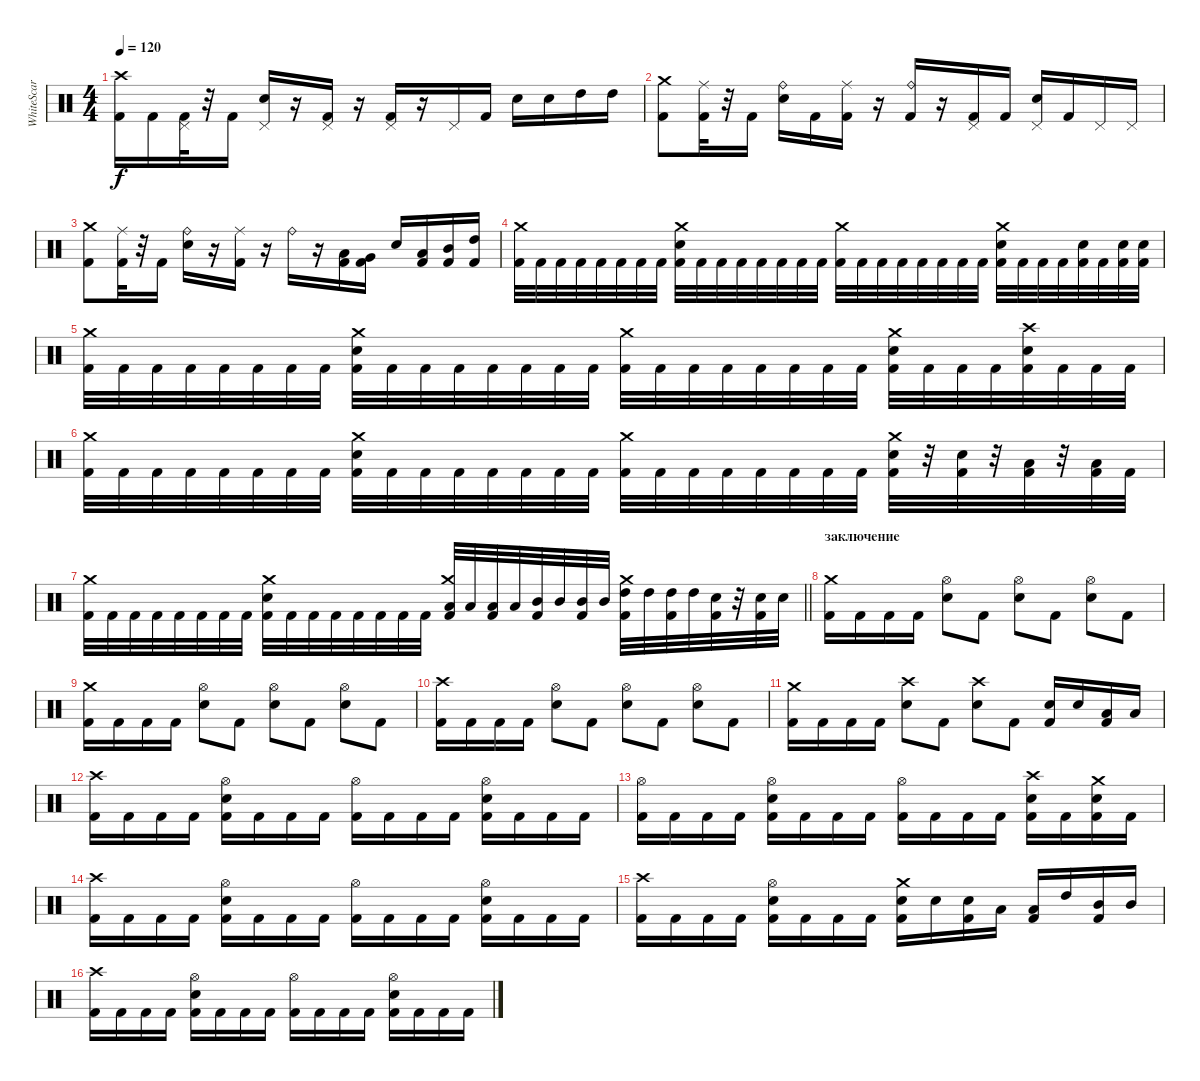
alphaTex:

\track ("WhiteScar" "WhiteScar") {instrument percussion}
\staff {score}
\articulation defaults
\ts (4 4)
\tempo 120
\clef neutral
\ks c
("Crash high (hit)" "Kick (hit) 2").16{dy f} "Kick (hit) 2".16 ("Pedal Hi-Hat (hit)" "Kick (hit) 2").32 r.32 "Kick (hit) 2".16 ("Pedal Hi-Hat (hit)" "Snare (hit) 2").16 r.16 ("Pedal Hi-Hat (hit)" "Kick (hit) 2").16 r.16 ("Pedal Hi-Hat (hit)" "Kick (hit) 2").16 r.16 "Pedal Hi-Hat (hit)".16 "Kick (hit) 2".16 "Snare (hit) 2".16 "Snare (hit) 2".16 "High Tom (hit)".16 "High Tom (hit)".16 |
("Crash medium (hit)" "Kick (hit) 2").8 ("Ride (middle)" "Kick (hit) 2").32 r.32 "Kick (hit) 2".16 ("Ride (bell)" "Snare (hit) 2").16 "Kick (hit) 2".16 ("Ride (middle)" "Kick (hit) 2").16 r.16 ("Ride (bell)" "Kick (hit) 2").16 r.16 ("Pedal Hi-Hat (hit)" "Kick (hit) 2").16 "Kick (hit) 2".16 ("Pedal Hi-Hat (hit)" "Snare (hit) 2").16 "Kick (hit) 2".16 "Pedal Hi-Hat (hit)".16 "Pedal Hi-Hat (hit)".16 |
("Crash medium (hit)" "Kick (hit) 2").8 ("Ride (middle)" "Kick (hit) 2").32 r.32 "Kick (hit) 2".16 ("Ride (bell)" "Snare (hit) 2").16 r.16 ("Ride (middle)" "Kick (hit) 2").16 r.16 "Ride (bell)".16 r.16 ("Low Floor Tom (hit)" "Kick (hit) 2").16 ("Very Low Tom (hit)" "Kick (hit) 2").16 "Snare (hit) 2".16 ("Low Tom (hit)" "Kick (hit) 2").16 ("Mid Tom (hit)" "Kick (hit) 2").16 ("High Tom (hit)" "Kick (hit) 2").16 |
("Crash medium (hit)" "Kick (hit) 2").32 "Kick (hit) 2".32 "Kick (hit) 2".32 "Kick (hit) 2".32 "Kick (hit) 2".32 "Kick (hit) 2".32 "Kick (hit) 2".32 "Kick (hit) 2".32 ("Crash medium (hit)" "Snare (hit) 2" "Kick (hit) 2").32 "Kick (hit) 2".32 "Kick (hit) 2".32 "Kick (hit) 2".32 "Kick (hit) 2".32 "Kick (hit) 2".32 "Kick (hit) 2".32 "Kick (hit) 2".32 ("Crash medium (hit)" "Kick (hit) 2").32 "Kick (hit) 2".32 "Kick (hit) 2".32 "Kick (hit) 2".32 "Kick (hit) 2".32 "Kick (hit) 2".32 "Kick (hit) 2".32 "Kick (hit) 2".32 ("Crash medium (hit)" "Snare (hit) 2" "Kick (hit) 2").32 "Kick (hit) 2".32 "Kick (hit) 2".32 "Kick (hit) 2".32 ("Snare (hit) 2" "Kick (hit) 2").32 "Kick (hit) 2".32 ("Snare (hit) 2" "Kick (hit) 2").32 ("Snare (hit) 2" "Kick (hit) 2").32 |
("Crash medium (hit)" "Kick (hit) 2").32 "Kick (hit) 2".32 "Kick (hit) 2".32 "Kick (hit) 2".32 "Kick (hit) 2".32 "Kick (hit) 2".32 "Kick (hit) 2".32 "Kick (hit) 2".32 ("Crash medium (hit)" "Snare (hit) 2" "Kick (hit) 2").32 "Kick (hit) 2".32 "Kick (hit) 2".32 "Kick (hit) 2".32 "Kick (hit) 2".32 "Kick (hit) 2".32 "Kick (hit) 2".32 "Kick (hit) 2".32 ("Crash medium (hit)" "Kick (hit) 2").32 "Kick (hit) 2".32 "Kick (hit) 2".32 "Kick (hit) 2".32 "Kick (hit) 2".32 "Kick (hit) 2".32 "Kick (hit) 2".32 "Kick (hit) 2".32 ("Crash medium (hit)" "Snare (hit) 2" "Kick (hit) 2").32 "Kick (hit) 2".32 "Kick (hit) 2".32 "Kick (hit) 2".32 ("Crash high (hit)" "Snare (hit) 2" "Kick (hit) 2").32 "Kick (hit) 2".32 "Kick (hit) 2".32 "Kick (hit) 2".32 |
("Crash medium (hit)" "Kick (hit) 2").32 "Kick (hit) 2".32 "Kick (hit) 2".32 "Kick (hit) 2".32 "Kick (hit) 2".32 "Kick (hit) 2".32 "Kick (hit) 2".32 "Kick (hit) 2".32 ("Crash medium (hit)" "Snare (hit) 2" "Kick (hit) 2").32 "Kick (hit) 2".32 "Kick (hit) 2".32 "Kick (hit) 2".32 "Kick (hit) 2".32 "Kick (hit) 2".32 "Kick (hit) 2".32 "Kick (hit) 2".32 ("Crash medium (hit)" "Kick (hit) 2").32 "Kick (hit) 2".32 "Kick (hit) 2".32 "Kick (hit) 2".32 "Kick (hit) 2".32 "Kick (hit) 2".32 "Kick (hit) 2".32 "Kick (hit) 2".32 ("Crash medium (hit)" "Snare (hit) 2" "Kick (hit) 2").32 r.32 ("Snare (hit) 2" "Kick (hit) 2").32 r.32 ("Low Tom (hit)" "Kick (hit) 2").32 r.32 ("Low Tom (hit)" "Kick (hit) 2").32 "Kick (hit) 2".32 |
\barLineRight lightlight
("Crash medium (hit)" "Kick (hit) 2").32 "Kick (hit) 2".32 "Kick (hit) 2".32 "Kick (hit) 2".32 "Kick (hit) 2".32 "Kick (hit) 2".32 "Kick (hit) 2".32 "Kick (hit) 2".32 ("Crash medium (hit)" "Snare (hit) 2" "Kick (hit) 2").32 "Kick (hit) 2".32 "Kick (hit) 2".32 "Kick (hit) 2".32 "Kick (hit) 2".32 "Kick (hit) 2".32 "Kick (hit) 2".32 "Kick (hit) 2".32 ("Crash medium (hit)" "Low Tom (hit)" "Kick (hit) 2").32 "Low Tom (hit)".32 ("Low Tom (hit)" "Kick (hit) 2").32 "Low Tom (hit)".32 ("Mid Tom (hit)" "Kick (hit) 2").32 "Mid Tom (hit)".32 ("Mid Tom (hit)" "Kick (hit) 2").32 "Mid Tom (hit)".32 ("Crash medium (hit)" "High Tom (hit)" "Kick (hit) 2").32 "High Tom (hit)".32 ("High Tom (hit)" "Kick (hit) 2").32 "High Tom (hit)".32 ("Snare (hit) 2" "Kick (hit) 2").32 r.32 ("Snare (hit) 2" "Kick (hit) 2").32 "Snare (hit) 2".32 |
\section ("" "заключение")
("Crash medium (hit)" "Kick (hit) 2").16 "Kick (hit) 2".16 "Kick (hit) 2".16 "Kick (hit) 2".16 ("Hi-Hat (open)" "Snare (hit) 2").8 "Kick (hit) 2".8 ("Hi-Hat (open)" "Snare (hit) 2").8 "Kick (hit) 2".8 ("Hi-Hat (open)" "Snare (hit) 2").8 "Kick (hit) 2".8 |
("Crash medium (hit)" "Kick (hit) 2").16 "Kick (hit) 2".16 "Kick (hit) 2".16 "Kick (hit) 2".16 ("Hi-Hat (open)" "Snare (hit) 2").8 "Kick (hit) 2".8 ("Hi-Hat (open)" "Snare (hit) 2").8 "Kick (hit) 2".8 ("Hi-Hat (open)" "Snare (hit) 2").8 "Kick (hit) 2".8 |
("Crash high (hit)" "Kick (hit) 2").16 "Kick (hit) 2".16 "Kick (hit) 2".16 "Kick (hit) 2".16 ("Hi-Hat (open)" "Snare (hit) 2").8 "Kick (hit) 2".8 ("Hi-Hat (open)" "Snare (hit) 2").8 "Kick (hit) 2".8 ("Hi-Hat (open)" "Snare (hit) 2").8 "Kick (hit) 2".8 |
("Crash medium (hit)" "Kick (hit) 2").16 "Kick (hit) 2".16 "Kick (hit) 2".16 "Kick (hit) 2".16 ("Crash high (hit)" "Snare (hit) 2").8 "Kick (hit) 2".8 ("Crash high (hit)" "Snare (hit) 2").8 "Kick (hit) 2".8 ("Snare (hit) 2" "Kick (hit) 2").16 "Snare (hit) 2".16 ("Low Tom (hit)" "Kick (hit) 2").16 "Low Tom (hit)".16 |
("Crash high (hit)" "Kick (hit) 2").16 "Kick (hit) 2".16 "Kick (hit) 2".16 "Kick (hit) 2".16 ("Snare (hit) 2" "Hi-Hat (open)" "Kick (hit) 2").16 "Kick (hit) 2".16 "Kick (hit) 2".16 "Kick (hit) 2".16 ("Hi-Hat (open)" "Kick (hit) 2").16 "Kick (hit) 2".16 "Kick (hit) 2".16 "Kick (hit) 2".16 ("Snare (hit) 2" "Hi-Hat (open)" "Kick (hit) 2").16 "Kick (hit) 2".16 "Kick (hit) 2".16 "Kick (hit) 2".16 |
("Hi-Hat (open)" "Kick (hit) 2").16 "Kick (hit) 2".16 "Kick (hit) 2".16 "Kick (hit) 2".16 ("Snare (hit) 2" "Hi-Hat (open)" "Kick (hit) 2").16 "Kick (hit) 2".16 "Kick (hit) 2".16 "Kick (hit) 2".16 ("Hi-Hat (open)" "Kick (hit) 2").16 "Kick (hit) 2".16 "Kick (hit) 2".16 "Kick (hit) 2".16 ("Snare (hit) 2" "Crash high (hit)" "Kick (hit) 2").16 "Kick (hit) 2".16 ("Snare (hit) 2" "Crash medium (hit)" "Kick (hit) 2").16 "Kick (hit) 2".16 |
("Crash high (hit)" "Kick (hit) 2").16 "Kick (hit) 2".16 "Kick (hit) 2".16 "Kick (hit) 2".16 ("Snare (hit) 2" "Hi-Hat (open)" "Kick (hit) 2").16 "Kick (hit) 2".16 "Kick (hit) 2".16 "Kick (hit) 2".16 ("Hi-Hat (open)" "Kick (hit) 2").16 "Kick (hit) 2".16 "Kick (hit) 2".16 "Kick (hit) 2".16 ("Snare (hit) 2" "Hi-Hat (open)" "Kick (hit) 2").16 "Kick (hit) 2".16 "Kick (hit) 2".16 "Kick (hit) 2".16 |
("Crash high (hit)" "Kick (hit) 2").16 "Kick (hit) 2".16 "Kick (hit) 2".16 "Kick (hit) 2".16 ("Hi-Hat (open)" "Snare (hit) 2" "Kick (hit) 2").16 "Kick (hit) 2".16 "Kick (hit) 2".16 "Kick (hit) 2".16 ("Crash medium (hit)" "Snare (hit) 2" "Kick (hit) 2").16 "Snare (hit) 2".16 ("Snare (hit) 2" "Kick (hit) 2").16 "Low Tom (hit)".16 ("Low Tom (hit)" "Kick (hit) 2").16 "High Tom (hit)".16 ("Mid Tom (hit)" "Kick (hit) 2").16 "Mid Tom (hit)".16 |
("Crash high (hit)" "Kick (hit) 2").16 "Kick (hit) 2".16 "Kick (hit) 2".16 "Kick (hit) 2".16 ("Hi-Hat (open)" "Snare (hit) 2" "Kick (hit) 2").16 "Kick (hit) 2".16 "Kick (hit) 2".16 "Kick (hit) 2".16 ("Hi-Hat (open)" "Kick (hit) 2").16 "Kick (hit) 2".16 "Kick (hit) 2".16 "Kick (hit) 2".16 ("Hi-Hat (open)" "Snare (hit) 2" "Kick (hit) 2").16 "Kick (hit) 2".16 "Kick (hit) 2".16 "Kick (hit) 2".16
